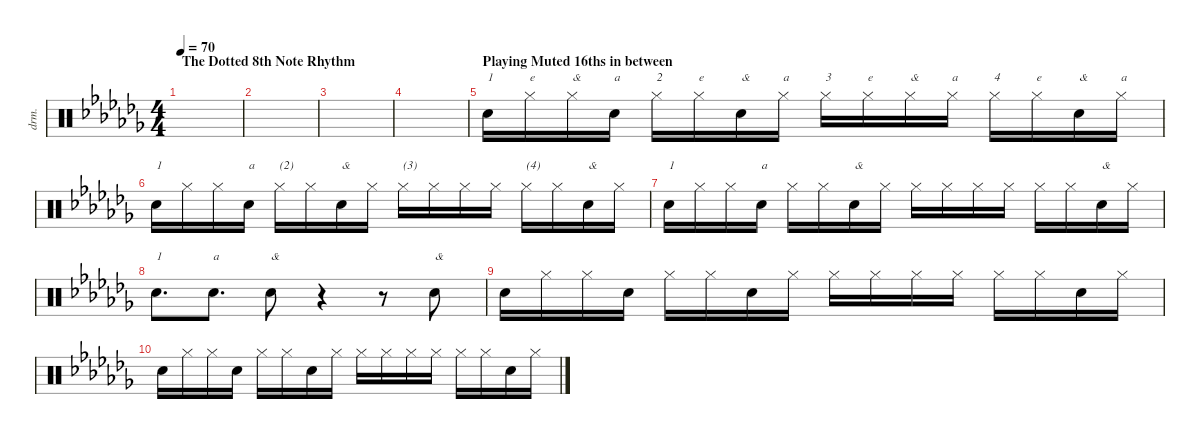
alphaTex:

\defaultSystemsLayout 4
\hideDynamics
\bracketExtendMode nobrackets
\track ("Drumkit" "drm.") {mute instrument percussion}
\staff {score}
\articulation defaults
\ts (4 4)
\section ("" "The Dotted 8th Note Rhythm")
\tempo 70
\clef neutral
\ks abminor
|
|
|
|
\section ("" "Playing Muted 16ths in between")
"Snare (hit) 2"{acc forcenatural}.16{txt "1" beam Down} "Hi-Hat (closed)"{acc forcenatural}.16{txt "e" beam Down} "Hi-Hat (closed)"{acc forcenatural}.16{txt "&" beam Down} "Snare (hit) 2"{acc forcenatural}.16{txt "a" beam Down} "Hi-Hat (closed)"{acc forcenatural}.16{txt "2" beam Down} "Hi-Hat (closed)"{acc forcenatural}.16{txt "e" beam Down} "Snare (hit) 2"{acc forcenatural}.16{txt "&" beam Down} "Hi-Hat (closed)"{acc forcenatural}.16{txt "a" beam Down} "Hi-Hat (closed)"{acc forcenatural}.16{txt "3" beam Down} "Hi-Hat (closed)"{acc forcenatural}.16{txt "e" beam Down} "Hi-Hat (closed)"{acc forcenatural}.16{txt "&" beam Down} "Hi-Hat (closed)"{acc forcenatural}.16{txt "a" beam Down} "Hi-Hat (closed)"{acc forcenatural}.16{txt "4" beam Down} "Hi-Hat (closed)"{acc forcenatural}.16{txt "e" beam Down} "Snare (hit) 2"{acc forcenatural}.16{txt "&" beam Down} "Hi-Hat (closed)"{acc forcenatural}.16{txt "a" beam Down} |
"Snare (hit) 2"{acc forcenatural}.16{txt "1" beam Down} "Hi-Hat (closed)"{acc forcenatural}.16{beam Down} "Hi-Hat (closed)"{acc forcenatural}.16{beam Down} "Snare (hit) 2"{acc forcenatural}.16{txt "a" beam Down} "Hi-Hat (closed)"{acc forcenatural}.16{txt "(2)" beam Down} "Hi-Hat (closed)"{acc forcenatural}.16{beam Down} "Snare (hit) 2"{acc forcenatural}.16{txt "&" beam Down} "Hi-Hat (closed)"{acc forcenatural}.16{beam Down} "Hi-Hat (closed)"{acc forcenatural}.16{txt "(3)" beam Down} "Hi-Hat (closed)"{acc forcenatural}.16{beam Down} "Hi-Hat (closed)"{acc forcenatural}.16{beam Down} "Hi-Hat (closed)"{acc forcenatural}.16{beam Down} "Hi-Hat (closed)"{acc forcenatural}.16{txt "(4)" beam Down} "Hi-Hat (closed)"{acc forcenatural}.16{beam Down} "Snare (hit) 2"{acc forcenatural}.16{txt "&" beam Down} "Hi-Hat (closed)"{acc forcenatural}.16{beam Down} |
"Snare (hit) 2"{acc forcenatural}.16{txt "1" beam Down} "Hi-Hat (closed)"{acc forcenatural}.16{beam Down} "Hi-Hat (closed)"{acc forcenatural}.16{beam Down} "Snare (hit) 2"{acc forcenatural}.16{txt "a" beam Down} "Hi-Hat (closed)"{acc forcenatural}.16{beam Down} "Hi-Hat (closed)"{acc forcenatural}.16{beam Down} "Snare (hit) 2"{acc forcenatural}.16{txt "&" beam Down} "Hi-Hat (closed)"{acc forcenatural}.16{beam Down} "Hi-Hat (closed)"{acc forcenatural}.16{beam Down} "Hi-Hat (closed)"{acc forcenatural}.16{beam Down} "Hi-Hat (closed)"{acc forcenatural}.16{beam Down} "Hi-Hat (closed)"{acc forcenatural}.16{beam Down} "Hi-Hat (closed)"{acc forcenatural}.16{beam Down} "Hi-Hat (closed)"{acc forcenatural}.16{beam Down} "Snare (hit) 2"{acc forcenatural}.16{txt "&" beam Down} "Hi-Hat (closed)"{acc forcenatural}.16{beam Down} |
"Snare (hit) 2"{acc forcenatural}.8{d txt "1" beam Down} "Snare (hit) 2"{acc forcenatural}.8{d txt "a" beam Down} "Snare (hit) 2"{acc forcenatural}.8{txt "&" beam Down} r.4{beam Down} r.8{beam Down} "Snare (hit) 2"{acc forcenatural}.8{txt "&" beam Down} |
"Snare (hit) 2"{acc forcenatural}.16{beam Down} "Hi-Hat (closed)"{acc forcenatural}.16{beam Down} "Hi-Hat (closed)"{acc forcenatural}.16{beam Down} "Snare (hit) 2"{acc forcenatural}.16{beam Down} "Hi-Hat (closed)"{acc forcenatural}.16{beam Down} "Hi-Hat (closed)"{acc forcenatural}.16{beam Down} "Snare (hit) 2"{acc forcenatural}.16{beam Down} "Hi-Hat (closed)"{acc forcenatural}.16{beam Down} "Hi-Hat (closed)"{acc forcenatural}.16{beam Down} "Hi-Hat (closed)"{acc forcenatural}.16{beam Down} "Hi-Hat (closed)"{acc forcenatural}.16{beam Down} "Hi-Hat (closed)"{acc forcenatural}.16{beam Down} "Hi-Hat (closed)"{acc forcenatural}.16{beam Down} "Hi-Hat (closed)"{acc forcenatural}.16{beam Down} "Snare (hit) 2"{acc forcenatural}.16{beam Down} "Hi-Hat (closed)"{acc forcenatural}.16{beam Down} |
"Snare (hit) 2"{acc forcenatural}.16{beam Down} "Hi-Hat (closed)"{acc forcenatural}.16{beam Down} "Hi-Hat (closed)"{acc forcenatural}.16{beam Down} "Snare (hit) 2"{acc forcenatural}.16{beam Down} "Hi-Hat (closed)"{acc forcenatural}.16{beam Down} "Hi-Hat (closed)"{acc forcenatural}.16{beam Down} "Snare (hit) 2"{acc forcenatural}.16{beam Down} "Hi-Hat (closed)"{acc forcenatural}.16{beam Down} "Hi-Hat (closed)"{acc forcenatural}.16{beam Down} "Hi-Hat (closed)"{acc forcenatural}.16{beam Down} "Hi-Hat (closed)"{acc forcenatural}.16{beam Down} "Hi-Hat (closed)"{acc forcenatural}.16{beam Down} "Hi-Hat (closed)"{acc forcenatural}.16{beam Down} "Hi-Hat (closed)"{acc forcenatural}.16{beam Down} "Snare (hit) 2"{acc forcenatural}.16{beam Down} "Hi-Hat (closed)"{acc forcenatural}.16{beam Down}
